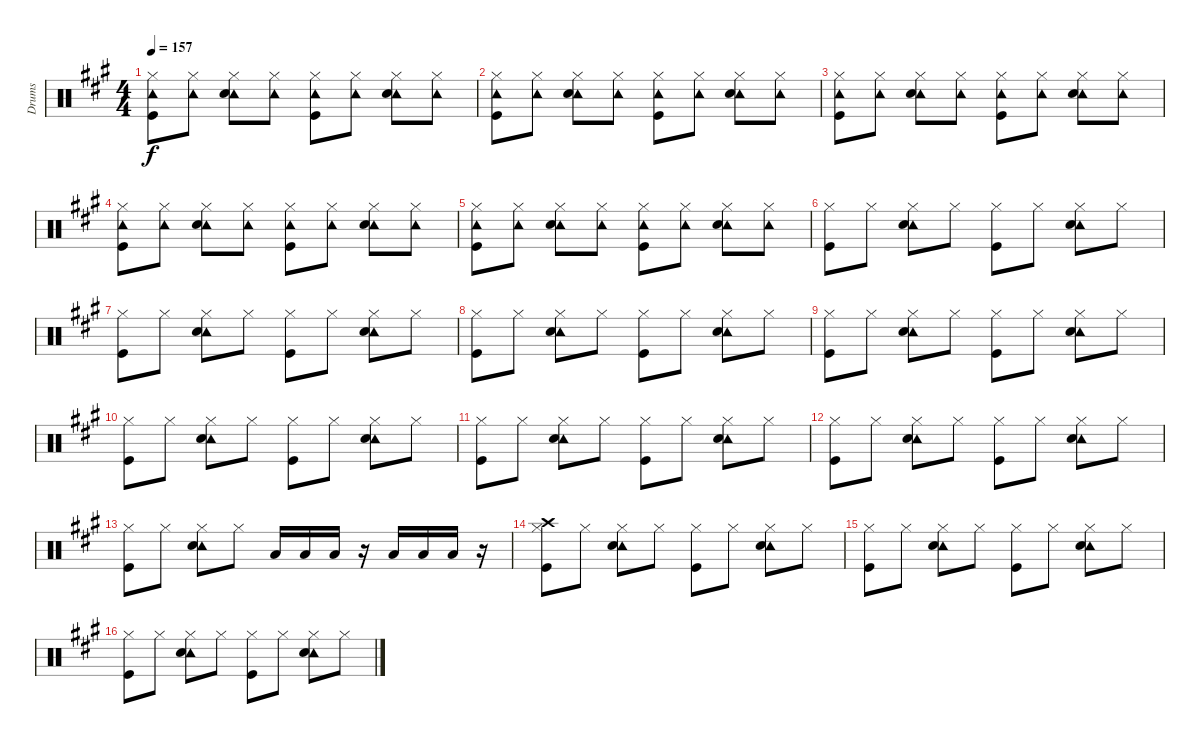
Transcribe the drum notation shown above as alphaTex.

\track ("Drums" "Drums") {instrument percussion}
\staff {score}
\articulation defaults
\ts (4 4)
\tempo 157
\clef neutral
\ks a
("Hi-Hat (closed)" "Tambourine (hit)" "Kick (hit)").8{dy f} ("Hi-Hat (closed)" "Tambourine (hit)").8 ("Hi-Hat (closed)" "Tambourine (hit)" "Electric Snare (hit)").8 ("Hi-Hat (closed)" "Tambourine (hit)").8 ("Hi-Hat (closed)" "Tambourine (hit)" "Kick (hit)").8 ("Hi-Hat (closed)" "Tambourine (hit)").8 ("Hi-Hat (closed)" "Tambourine (hit)" "Electric Snare (hit)").8 ("Hi-Hat (closed)" "Tambourine (hit)").8 |
("Hi-Hat (closed)" "Tambourine (hit)" "Kick (hit)").8 ("Hi-Hat (closed)" "Tambourine (hit)").8 ("Hi-Hat (closed)" "Tambourine (hit)" "Electric Snare (hit)").8 ("Hi-Hat (closed)" "Tambourine (hit)").8 ("Hi-Hat (closed)" "Tambourine (hit)" "Kick (hit)").8 ("Hi-Hat (closed)" "Tambourine (hit)").8 ("Hi-Hat (closed)" "Tambourine (hit)" "Electric Snare (hit)").8 ("Hi-Hat (closed)" "Tambourine (hit)").8 |
("Hi-Hat (closed)" "Tambourine (hit)" "Kick (hit)").8 ("Hi-Hat (closed)" "Tambourine (hit)").8 ("Hi-Hat (closed)" "Tambourine (hit)" "Electric Snare (hit)").8 ("Hi-Hat (closed)" "Tambourine (hit)").8 ("Hi-Hat (closed)" "Tambourine (hit)" "Kick (hit)").8 ("Hi-Hat (closed)" "Tambourine (hit)").8 ("Hi-Hat (closed)" "Tambourine (hit)" "Electric Snare (hit)").8 ("Hi-Hat (closed)" "Tambourine (hit)").8 |
("Hi-Hat (closed)" "Tambourine (hit)" "Kick (hit)").8 ("Hi-Hat (closed)" "Tambourine (hit)").8 ("Hi-Hat (closed)" "Tambourine (hit)" "Electric Snare (hit)").8 ("Hi-Hat (closed)" "Tambourine (hit)").8 ("Hi-Hat (closed)" "Tambourine (hit)" "Kick (hit)").8 ("Hi-Hat (closed)" "Tambourine (hit)").8 ("Hi-Hat (closed)" "Tambourine (hit)" "Electric Snare (hit)").8 ("Hi-Hat (closed)" "Tambourine (hit)").8 |
("Hi-Hat (closed)" "Tambourine (hit)" "Kick (hit)").8 ("Hi-Hat (closed)" "Tambourine (hit)").8 ("Hi-Hat (closed)" "Tambourine (hit)" "Electric Snare (hit)").8 ("Hi-Hat (closed)" "Tambourine (hit)").8 ("Hi-Hat (closed)" "Tambourine (hit)" "Kick (hit)").8 ("Hi-Hat (closed)" "Tambourine (hit)").8 ("Hi-Hat (closed)" "Tambourine (hit)" "Electric Snare (hit)").8 ("Hi-Hat (closed)" "Tambourine (hit)").8 |
("Hi-Hat (closed)" "Kick (hit)").8 "Hi-Hat (closed)".8 ("Hi-Hat (closed)" "Tambourine (hit)" "Electric Snare (hit)").8 "Hi-Hat (closed)".8 ("Hi-Hat (closed)" "Kick (hit)").8 "Hi-Hat (closed)".8 ("Hi-Hat (closed)" "Tambourine (hit)" "Electric Snare (hit)").8 "Hi-Hat (closed)".8 |
("Hi-Hat (closed)" "Kick (hit)").8 "Hi-Hat (closed)".8 ("Hi-Hat (closed)" "Tambourine (hit)" "Electric Snare (hit)").8 "Hi-Hat (closed)".8 ("Hi-Hat (closed)" "Kick (hit)").8 "Hi-Hat (closed)".8 ("Hi-Hat (closed)" "Tambourine (hit)" "Electric Snare (hit)").8 "Hi-Hat (closed)".8 |
("Hi-Hat (closed)" "Kick (hit)").8 "Hi-Hat (closed)".8 ("Hi-Hat (closed)" "Tambourine (hit)" "Electric Snare (hit)").8 "Hi-Hat (closed)".8 ("Hi-Hat (closed)" "Kick (hit)").8 "Hi-Hat (closed)".8 ("Hi-Hat (closed)" "Tambourine (hit)" "Electric Snare (hit)").8 "Hi-Hat (closed)".8 |
("Hi-Hat (closed)" "Kick (hit)").8 "Hi-Hat (closed)".8 ("Hi-Hat (closed)" "Tambourine (hit)" "Electric Snare (hit)").8 "Hi-Hat (closed)".8 ("Hi-Hat (closed)" "Kick (hit)").8 "Hi-Hat (closed)".8 ("Hi-Hat (closed)" "Tambourine (hit)" "Electric Snare (hit)").8 "Hi-Hat (closed)".8 |
("Hi-Hat (closed)" "Kick (hit)").8 "Hi-Hat (closed)".8 ("Hi-Hat (closed)" "Tambourine (hit)" "Electric Snare (hit)").8 "Hi-Hat (closed)".8 ("Hi-Hat (closed)" "Kick (hit)").8 "Hi-Hat (closed)".8 ("Hi-Hat (closed)" "Tambourine (hit)" "Electric Snare (hit)").8 "Hi-Hat (closed)".8 |
("Hi-Hat (closed)" "Kick (hit)").8 "Hi-Hat (closed)".8 ("Hi-Hat (closed)" "Tambourine (hit)" "Electric Snare (hit)").8 "Hi-Hat (closed)".8 ("Hi-Hat (closed)" "Kick (hit)").8 "Hi-Hat (closed)".8 ("Hi-Hat (closed)" "Tambourine (hit)" "Electric Snare (hit)").8 "Hi-Hat (closed)".8 |
("Hi-Hat (closed)" "Kick (hit)").8 "Hi-Hat (closed)".8 ("Hi-Hat (closed)" "Tambourine (hit)" "Electric Snare (hit)").8 "Hi-Hat (closed)".8 ("Hi-Hat (closed)" "Kick (hit)").8 "Hi-Hat (closed)".8 ("Hi-Hat (closed)" "Tambourine (hit)" "Electric Snare (hit)").8 "Hi-Hat (closed)".8 |
("Hi-Hat (closed)" "Kick (hit)").8 "Hi-Hat (closed)".8 ("Hi-Hat (closed)" "Tambourine (hit)" "Electric Snare (hit)").8 "Hi-Hat (closed)".8 "Low Tom (hit)".16 "Low Tom (hit)".16 "Low Tom (hit)".16 r.16 "Low Floor Tom (hit)".16 "Low Floor Tom (hit)".16 "Low Floor Tom (hit)".16 r.16 |
("Hi-Hat (closed)" "Crash high (hit)" "Kick (hit)").8 "Hi-Hat (closed)".8 ("Hi-Hat (closed)" "Tambourine (hit)" "Electric Snare (hit)").8 "Hi-Hat (closed)".8 ("Hi-Hat (closed)" "Kick (hit)").8 "Hi-Hat (closed)".8 ("Hi-Hat (closed)" "Tambourine (hit)" "Electric Snare (hit)").8 "Hi-Hat (closed)".8 |
("Hi-Hat (closed)" "Kick (hit)").8 "Hi-Hat (closed)".8 ("Hi-Hat (closed)" "Tambourine (hit)" "Electric Snare (hit)").8 "Hi-Hat (closed)".8 ("Hi-Hat (closed)" "Kick (hit)").8 "Hi-Hat (closed)".8 ("Hi-Hat (closed)" "Tambourine (hit)" "Electric Snare (hit)").8 "Hi-Hat (closed)".8 |
("Hi-Hat (closed)" "Kick (hit)").8 "Hi-Hat (closed)".8 ("Hi-Hat (closed)" "Tambourine (hit)" "Electric Snare (hit)").8 "Hi-Hat (closed)".8 ("Hi-Hat (closed)" "Kick (hit)").8 "Hi-Hat (closed)".8 ("Hi-Hat (closed)" "Tambourine (hit)" "Electric Snare (hit)").8 "Hi-Hat (closed)".8
